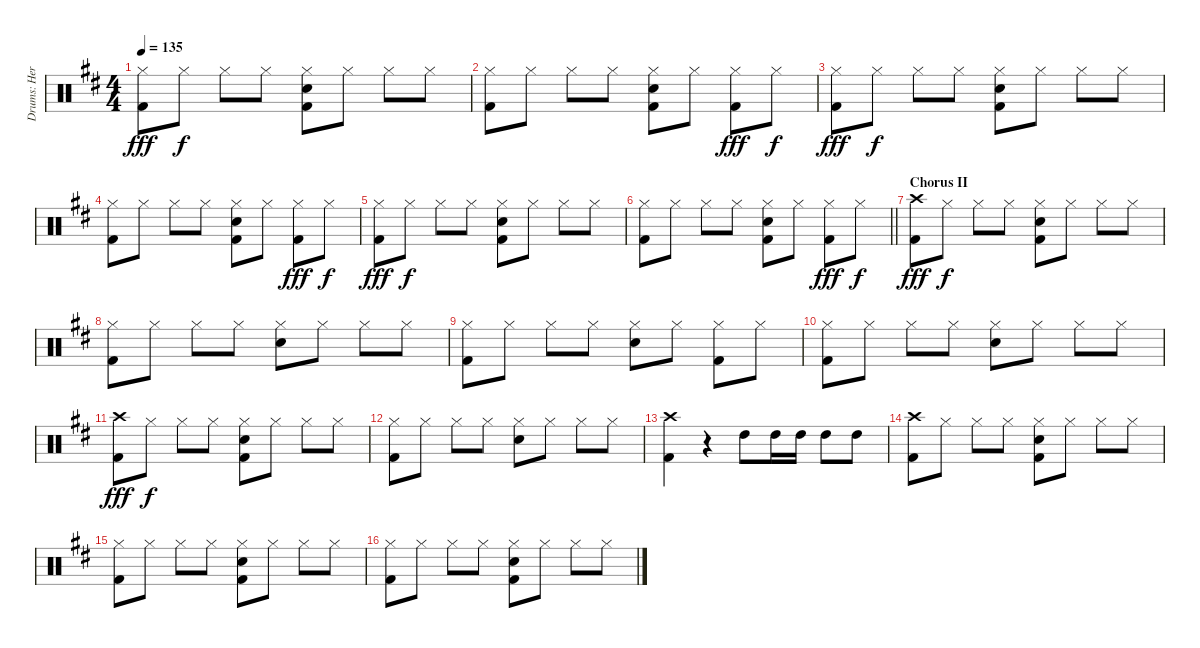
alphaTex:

\track ("Drums: Herman" "Drums: Her") {instrument percussion}
\staff {score}
\articulation defaults
\ts (4 4)
\tempo 135
\clef neutral
\ks d
("Hi-Hat (closed)" "Kick (hit) 2").8{dy fff} "Hi-Hat (closed)".8{dy f} "Hi-Hat (closed)".8 "Hi-Hat (closed)".8 ("Hi-Hat (closed)" "Snare (hit) 2" "Kick (hit) 2").8 "Hi-Hat (closed)".8 "Hi-Hat (closed)".8 "Hi-Hat (closed)".8 |
("Hi-Hat (closed)" "Kick (hit) 2").8 "Hi-Hat (closed)".8 "Hi-Hat (closed)".8 "Hi-Hat (closed)".8 ("Hi-Hat (closed)" "Snare (hit) 2" "Kick (hit) 2").8 "Hi-Hat (closed)".8 ("Hi-Hat (closed)" "Kick (hit) 2").8{dy fff} "Hi-Hat (closed)".8{dy f} |
("Hi-Hat (closed)" "Kick (hit) 2").8{dy fff} "Hi-Hat (closed)".8{dy f} "Hi-Hat (closed)".8 "Hi-Hat (closed)".8 ("Hi-Hat (closed)" "Snare (hit) 2" "Kick (hit) 2").8 "Hi-Hat (closed)".8 "Hi-Hat (closed)".8 "Hi-Hat (closed)".8 |
("Hi-Hat (closed)" "Kick (hit) 2").8 "Hi-Hat (closed)".8 "Hi-Hat (closed)".8 "Hi-Hat (closed)".8 ("Hi-Hat (closed)" "Snare (hit) 2" "Kick (hit) 2").8 "Hi-Hat (closed)".8 ("Hi-Hat (closed)" "Kick (hit) 2").8{dy fff} "Hi-Hat (closed)".8{dy f} |
("Hi-Hat (closed)" "Kick (hit) 2").8{dy fff} "Hi-Hat (closed)".8{dy f} "Hi-Hat (closed)".8 "Hi-Hat (closed)".8 ("Hi-Hat (closed)" "Snare (hit) 2" "Kick (hit) 2").8 "Hi-Hat (closed)".8 "Hi-Hat (closed)".8 "Hi-Hat (closed)".8 |
\barLineRight lightlight
("Hi-Hat (closed)" "Kick (hit) 2").8 "Hi-Hat (closed)".8 "Hi-Hat (closed)".8 "Hi-Hat (closed)".8 ("Hi-Hat (closed)" "Snare (hit) 2" "Kick (hit) 2").8 "Hi-Hat (closed)".8 ("Hi-Hat (closed)" "Kick (hit) 2").8{dy fff} "Hi-Hat (closed)".8{dy f} |
\section ("" "Chorus II")
("Crash high (hit)" "Kick (hit) 2").8{dy fff} "Hi-Hat (closed)".8{dy f} "Hi-Hat (closed)".8 "Hi-Hat (closed)".8 ("Hi-Hat (closed)" "Snare (hit) 2" "Kick (hit) 2").8 "Hi-Hat (closed)".8 "Hi-Hat (closed)".8 "Hi-Hat (closed)".8 |
("Hi-Hat (closed)" "Kick (hit) 2").8 "Hi-Hat (closed)".8 "Hi-Hat (closed)".8 "Hi-Hat (closed)".8 ("Hi-Hat (closed)" "Snare (hit) 2").8 "Hi-Hat (closed)".8 "Hi-Hat (closed)".8 "Hi-Hat (closed)".8 |
("Hi-Hat (closed)" "Kick (hit) 2").8 "Hi-Hat (closed)".8 "Hi-Hat (closed)".8 "Hi-Hat (closed)".8 ("Hi-Hat (closed)" "Snare (hit) 2").8 "Hi-Hat (closed)".8 ("Hi-Hat (closed)" "Kick (hit) 2").8 "Hi-Hat (closed)".8 |
("Hi-Hat (closed)" "Kick (hit) 2").8 "Hi-Hat (closed)".8 "Hi-Hat (closed)".8 "Hi-Hat (closed)".8 ("Hi-Hat (closed)" "Snare (hit) 2").8 "Hi-Hat (closed)".8 "Hi-Hat (closed)".8 "Hi-Hat (closed)".8 |
("Crash high (hit)" "Kick (hit) 2").8{dy fff} "Hi-Hat (closed)".8{dy f} "Hi-Hat (closed)".8 "Hi-Hat (closed)".8 ("Hi-Hat (closed)" "Snare (hit) 2" "Kick (hit) 2").8 "Hi-Hat (closed)".8 "Hi-Hat (closed)".8 "Hi-Hat (closed)".8 |
("Hi-Hat (closed)" "Kick (hit) 2").8 "Hi-Hat (closed)".8 "Hi-Hat (closed)".8 "Hi-Hat (closed)".8 ("Hi-Hat (closed)" "Snare (hit) 2").8 "Hi-Hat (closed)".8 "Hi-Hat (closed)".8 "Hi-Hat (closed)".8 |
("Crash high (hit)" "Kick (hit) 2").4 r.4 "High Tom (hit)".8 "High Tom (hit)".16 "High Tom (hit)".16 "High Tom (hit)".8 "High Tom (hit)".8 |
("Crash high (hit)" "Kick (hit) 2").8 "Hi-Hat (closed)".8 "Hi-Hat (closed)".8 "Hi-Hat (closed)".8 ("Hi-Hat (closed)" "Snare (hit) 2" "Kick (hit) 2").8 "Hi-Hat (closed)".8 "Hi-Hat (closed)".8 "Hi-Hat (closed)".8 |
("Hi-Hat (closed)" "Kick (hit) 2").8 "Hi-Hat (closed)".8 "Hi-Hat (closed)".8 "Hi-Hat (closed)".8 ("Hi-Hat (closed)" "Snare (hit) 2" "Kick (hit) 2").8 "Hi-Hat (closed)".8 "Hi-Hat (closed)".8 "Hi-Hat (closed)".8 |
("Hi-Hat (closed)" "Kick (hit) 2").8 "Hi-Hat (closed)".8 "Hi-Hat (closed)".8 "Hi-Hat (closed)".8 ("Hi-Hat (closed)" "Snare (hit) 2" "Kick (hit) 2").8 "Hi-Hat (closed)".8 "Hi-Hat (closed)".8 "Hi-Hat (closed)".8
